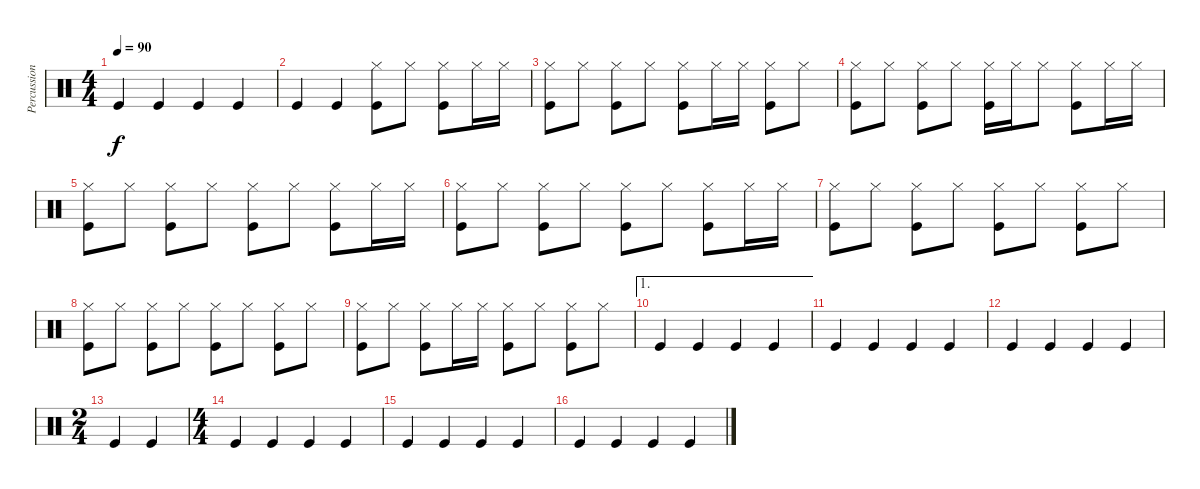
\track ("Percussion" "Percussion") {instrument percussion}
\staff {score}
\articulation defaults
\ts (4 4)
\tempo 90
\clef neutral
\ks c "Kick (hit)".4{dy f} "Kick (hit)".4 "Kick (hit)".4 "Kick (hit)".4
|
"Kick (hit)".4 "Kick (hit)".4 ("Hi-Hat (closed)" "Kick (hit)").8 "Hi-Hat (closed)".8 ("Hi-Hat (closed)" "Kick (hit)").8 "Hi-Hat (closed)".16 "Hi-Hat (closed)".16 |
("Hi-Hat (closed)" "Kick (hit)").8 "Hi-Hat (closed)".8 ("Hi-Hat (closed)" "Kick (hit)").8 "Hi-Hat (closed)".8 ("Hi-Hat (closed)" "Kick (hit)").8 "Hi-Hat (closed)".16 "Hi-Hat (closed)".16 ("Hi-Hat (closed)" "Kick (hit)").8 "Hi-Hat (closed)".8 |
("Hi-Hat (closed)" "Kick (hit)").8 "Hi-Hat (closed)".8 ("Hi-Hat (closed)" "Kick (hit)").8 "Hi-Hat (closed)".8 ("Hi-Hat (closed)" "Kick (hit)").16 "Hi-Hat (closed)".16 "Hi-Hat (closed)".8 ("Hi-Hat (closed)" "Kick (hit)").8 "Hi-Hat (closed)".16 "Hi-Hat (closed)".16 |
("Hi-Hat (closed)" "Kick (hit)").8 "Hi-Hat (closed)".8 ("Hi-Hat (closed)" "Kick (hit)").8 "Hi-Hat (closed)".8 ("Hi-Hat (closed)" "Kick (hit)").8 "Hi-Hat (closed)".8 ("Hi-Hat (closed)" "Kick (hit)").8 "Hi-Hat (closed)".16 "Hi-Hat (closed)".16 |
("Hi-Hat (closed)" "Kick (hit)").8 "Hi-Hat (closed)".8 ("Hi-Hat (closed)" "Kick (hit)").8 "Hi-Hat (closed)".8 ("Hi-Hat (closed)" "Kick (hit)").8 "Hi-Hat (closed)".8 ("Hi-Hat (closed)" "Kick (hit)").8 "Hi-Hat (closed)".16 "Hi-Hat (closed)".16 |
("Hi-Hat (closed)" "Kick (hit)").8 "Hi-Hat (closed)".8 ("Hi-Hat (closed)" "Kick (hit)").8 "Hi-Hat (closed)".8 ("Hi-Hat (closed)" "Kick (hit)").8 "Hi-Hat (closed)".8 ("Hi-Hat (closed)" "Kick (hit)").8 "Hi-Hat (closed)".8 |
("Hi-Hat (closed)" "Kick (hit)").8 "Hi-Hat (closed)".8 ("Hi-Hat (closed)" "Kick (hit)").8 "Hi-Hat (closed)".8 ("Hi-Hat (closed)" "Kick (hit)").8 "Hi-Hat (closed)".8 ("Hi-Hat (closed)" "Kick (hit)").8 "Hi-Hat (closed)".8 |
("Hi-Hat (closed)" "Kick (hit)").8 "Hi-Hat (closed)".8 ("Hi-Hat (closed)" "Kick (hit)").8 "Hi-Hat (closed)".16 "Hi-Hat (closed)".16 ("Hi-Hat (closed)" "Kick (hit)").8 "Hi-Hat (closed)".8 ("Hi-Hat (closed)" "Kick (hit)").8 "Hi-Hat (closed)".8 |
\ae 1 "Kick (hit)".4 "Kick (hit)".4 "Kick (hit)".4 "Kick (hit)".4
|
"Kick (hit)".4 "Kick (hit)".4 "Kick (hit)".4 "Kick (hit)".4 |
"Kick (hit)".4 "Kick (hit)".4 "Kick (hit)".4 "Kick (hit)".4 |
\ts (2 4)
"Kick (hit)".4 "Kick (hit)".4 |
\ts (4 4)
"Kick (hit)".4 "Kick (hit)".4 "Kick (hit)".4 "Kick (hit)".4 |
"Kick (hit)".4 "Kick (hit)".4 "Kick (hit)".4 "Kick (hit)".4 |
"Kick (hit)".4 "Kick (hit)".4 "Kick (hit)".4 "Kick (hit)".4
